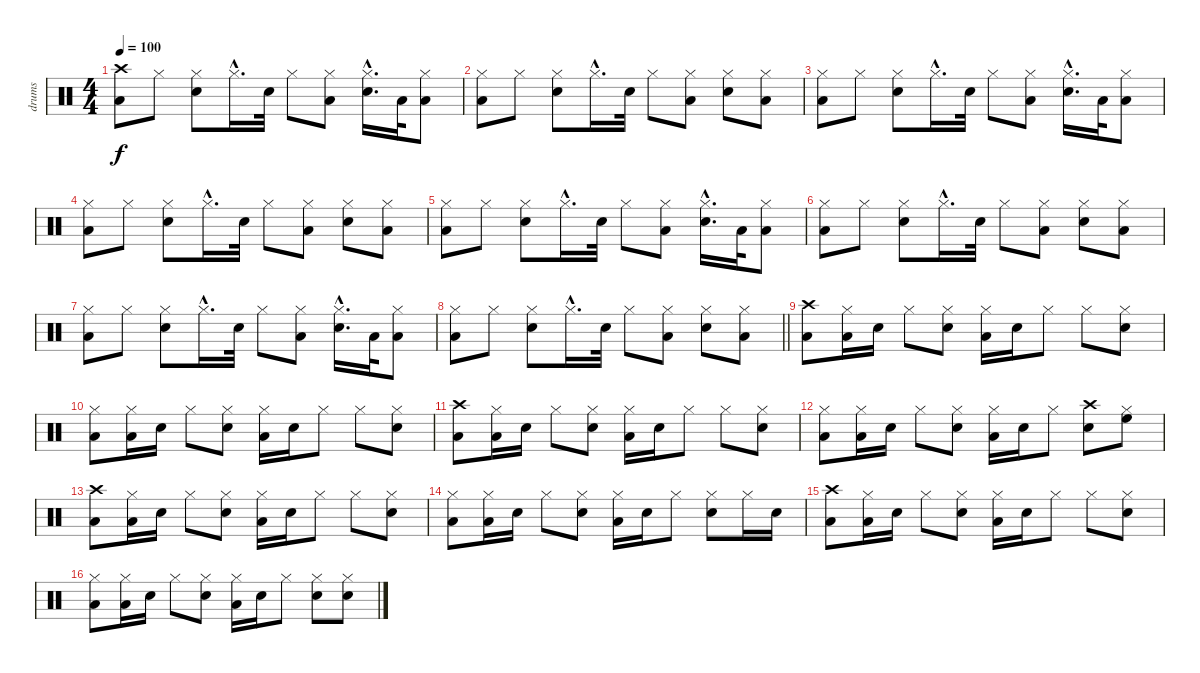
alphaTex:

\track ("drums" "drums") {instrument percussion}
\staff {score}
\articulation defaults
\ts (4 4)
\tempo 100
\clef neutral
\ks c
("Crash high (hit)" "Low Floor Tom (hit)").8{dy f} "Hi-Hat (closed)".8 ("Hi-Hat (closed)" "Electric Snare (hit)").8 "Hi-Hat (closed)"{hac}.16{d} "Electric Snare (hit)".32 "Hi-Hat (closed)".8 ("Hi-Hat (closed)" "Low Floor Tom (hit)").8 ("Hi-Hat (closed)"{hac} "Electric Snare (hit)"{hac}).16{d} "Low Floor Tom (hit)".32 ("Hi-Hat (closed)" "Low Floor Tom (hit)").8 |
("Hi-Hat (closed)" "Low Floor Tom (hit)").8 "Hi-Hat (closed)".8 ("Hi-Hat (closed)" "Electric Snare (hit)").8 "Hi-Hat (closed)"{hac}.16{d} "Electric Snare (hit)".32 "Hi-Hat (closed)".8 ("Hi-Hat (closed)" "Low Floor Tom (hit)").8 ("Hi-Hat (closed)" "Electric Snare (hit)").8 ("Hi-Hat (closed)" "Low Floor Tom (hit)").8 |
("Hi-Hat (closed)" "Low Floor Tom (hit)").8 "Hi-Hat (closed)".8 ("Hi-Hat (closed)" "Electric Snare (hit)").8 "Hi-Hat (closed)"{hac}.16{d} "Electric Snare (hit)".32 "Hi-Hat (closed)".8 ("Hi-Hat (closed)" "Low Floor Tom (hit)").8 ("Hi-Hat (closed)"{hac} "Electric Snare (hit)"{hac}).16{d} "Low Floor Tom (hit)".32 ("Hi-Hat (closed)" "Low Floor Tom (hit)").8 |
("Hi-Hat (closed)" "Low Floor Tom (hit)").8 "Hi-Hat (closed)".8 ("Hi-Hat (closed)" "Electric Snare (hit)").8 "Hi-Hat (closed)"{hac}.16{d} "Electric Snare (hit)".32 "Hi-Hat (closed)".8 ("Hi-Hat (closed)" "Low Floor Tom (hit)").8 ("Hi-Hat (closed)" "Electric Snare (hit)").8 ("Hi-Hat (closed)" "Low Floor Tom (hit)").8 |
("Hi-Hat (closed)" "Low Floor Tom (hit)").8 "Hi-Hat (closed)".8 ("Hi-Hat (closed)" "Electric Snare (hit)").8 "Hi-Hat (closed)"{hac}.16{d} "Electric Snare (hit)".32 "Hi-Hat (closed)".8 ("Hi-Hat (closed)" "Low Floor Tom (hit)").8 ("Hi-Hat (closed)"{hac} "Electric Snare (hit)"{hac}).16{d} "Low Floor Tom (hit)".32 ("Hi-Hat (closed)" "Low Floor Tom (hit)").8 |
("Hi-Hat (closed)" "Low Floor Tom (hit)").8 "Hi-Hat (closed)".8 ("Hi-Hat (closed)" "Electric Snare (hit)").8 "Hi-Hat (closed)"{hac}.16{d} "Electric Snare (hit)".32 "Hi-Hat (closed)".8 ("Hi-Hat (closed)" "Low Floor Tom (hit)").8 ("Hi-Hat (closed)" "Electric Snare (hit)").8 ("Hi-Hat (closed)" "Low Floor Tom (hit)").8 |
("Hi-Hat (closed)" "Low Floor Tom (hit)").8 "Hi-Hat (closed)".8 ("Hi-Hat (closed)" "Electric Snare (hit)").8 "Hi-Hat (closed)"{hac}.16{d} "Electric Snare (hit)".32 "Hi-Hat (closed)".8 ("Hi-Hat (closed)" "Low Floor Tom (hit)").8 ("Hi-Hat (closed)"{hac} "Electric Snare (hit)"{hac}).16{d} "Low Floor Tom (hit)".32 ("Hi-Hat (closed)" "Low Floor Tom (hit)").8 |
\barLineRight lightlight
("Hi-Hat (closed)" "Low Floor Tom (hit)").8 "Hi-Hat (closed)".8 ("Hi-Hat (closed)" "Electric Snare (hit)").8 "Hi-Hat (closed)"{hac}.16{d} "Electric Snare (hit)".32 "Hi-Hat (closed)".8 ("Hi-Hat (closed)" "Low Floor Tom (hit)").8 ("Hi-Hat (closed)" "Electric Snare (hit)").8 ("Hi-Hat (closed)" "Low Floor Tom (hit)").8 |
("Crash high (hit)" "Low Floor Tom (hit)").8 ("Hi-Hat (closed)" "Low Floor Tom (hit)").16 "Electric Snare (hit)".16 "Hi-Hat (closed)".8 ("Hi-Hat (closed)" "Electric Snare (hit)").8 ("Hi-Hat (closed)" "Low Floor Tom (hit)").16 "Electric Snare (hit)".16 "Hi-Hat (closed)".8 "Hi-Hat (closed)".8 ("Hi-Hat (closed)" "Electric Snare (hit)").8 |
("Hi-Hat (closed)" "Low Floor Tom (hit)").8 ("Hi-Hat (closed)" "Low Floor Tom (hit)").16 "Electric Snare (hit)".16 "Hi-Hat (closed)".8 ("Hi-Hat (closed)" "Electric Snare (hit)").8 ("Hi-Hat (closed)" "Low Floor Tom (hit)").16 "Electric Snare (hit)".16 "Hi-Hat (closed)".8 "Hi-Hat (closed)".8 ("Hi-Hat (closed)" "Electric Snare (hit)").8 |
("Crash high (hit)" "Low Floor Tom (hit)").8 ("Hi-Hat (closed)" "Low Floor Tom (hit)").16 "Electric Snare (hit)".16 "Hi-Hat (closed)".8 ("Hi-Hat (closed)" "Electric Snare (hit)").8 ("Hi-Hat (closed)" "Low Floor Tom (hit)").16 "Electric Snare (hit)".16 "Hi-Hat (closed)".8 "Hi-Hat (closed)".8 ("Hi-Hat (closed)" "Electric Snare (hit)").8 |
("Hi-Hat (closed)" "Low Floor Tom (hit)").8 ("Hi-Hat (closed)" "Low Floor Tom (hit)").16 "Electric Snare (hit)".16 "Hi-Hat (closed)".8 ("Hi-Hat (closed)" "Electric Snare (hit)").8 ("Hi-Hat (closed)" "Low Floor Tom (hit)").16 "Electric Snare (hit)".16 "Hi-Hat (closed)".8 ("Crash high (hit)" "Electric Snare (hit)").8 ("Hi-Hat (closed)" "High Floor Tom (hit)").8 |
("Crash high (hit)" "Low Floor Tom (hit)").8 ("Hi-Hat (closed)" "Low Floor Tom (hit)").16 "Electric Snare (hit)".16 "Hi-Hat (closed)".8 ("Hi-Hat (closed)" "Electric Snare (hit)").8 ("Hi-Hat (closed)" "Low Floor Tom (hit)").16 "Electric Snare (hit)".16 "Hi-Hat (closed)".8 "Hi-Hat (closed)".8 ("Hi-Hat (closed)" "Electric Snare (hit)").8 |
("Hi-Hat (closed)" "Low Floor Tom (hit)").8 ("Hi-Hat (closed)" "Low Floor Tom (hit)").16 "Electric Snare (hit)".16 "Hi-Hat (closed)".8 ("Hi-Hat (closed)" "Electric Snare (hit)").8 ("Hi-Hat (closed)" "Low Floor Tom (hit)").16 "Electric Snare (hit)".16 "Hi-Hat (closed)".8 ("Hi-Hat (closed)" "Electric Snare (hit)").8 "Hi-Hat (closed)".16 "Electric Snare (hit)".16 |
("Crash high (hit)" "Low Floor Tom (hit)").8 ("Hi-Hat (closed)" "Low Floor Tom (hit)").16 "Electric Snare (hit)".16 "Hi-Hat (closed)".8 ("Hi-Hat (closed)" "Electric Snare (hit)").8 ("Hi-Hat (closed)" "Low Floor Tom (hit)").16 "Electric Snare (hit)".16 "Hi-Hat (closed)".8 "Hi-Hat (closed)".8 ("Hi-Hat (closed)" "Electric Snare (hit)").8 |
("Hi-Hat (closed)" "Low Floor Tom (hit)").8 ("Hi-Hat (closed)" "Low Floor Tom (hit)").16 "Electric Snare (hit)".16 "Hi-Hat (closed)".8 ("Hi-Hat (closed)" "Electric Snare (hit)").8 ("Hi-Hat (closed)" "Low Floor Tom (hit)").16 "Electric Snare (hit)".16 "Hi-Hat (closed)".8 ("Hi-Hat (closed)" "Electric Snare (hit)").8 ("Hi-Hat (closed)" "Electric Snare (hit)").8
